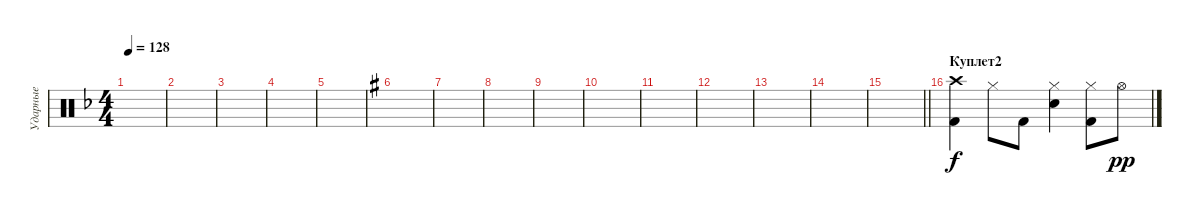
\track ("Ударные" "Ударные") {instrument percussion}
\staff {score}
\articulation defaults
\ts (4 4)
\tempo 128
\clef neutral
\ks dminor
|
|
|
|
|
\ks eminor
|
|
|
|
|
|
|
|
|
\barLineRight lightlight
|
\section ("" "Куплет2")
("Crash high (hit)" "Kick (hit) 2").4 "Hi-Hat (closed)".8{dy f} "Kick (hit) 2".8 ("Snare (hit) 2" "Hi-Hat (closed)").4 ("Kick (hit) 2" "Hi-Hat (closed)").8 "Hi-Hat (open)".8{dy pp}
